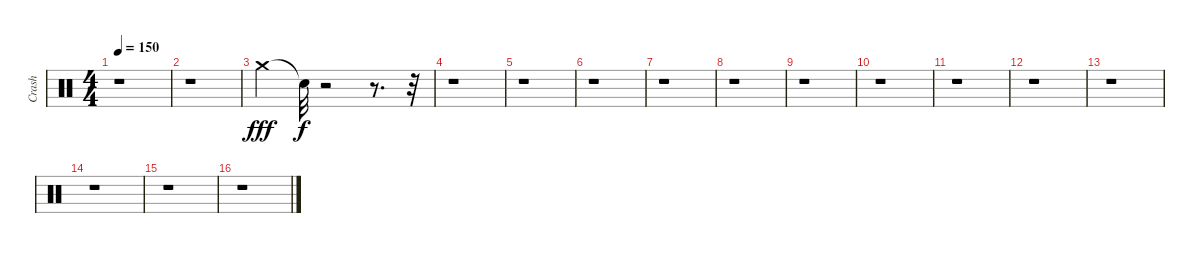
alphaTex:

\track ("Crash" "Crash") {instrument percussion}
\staff {score}
\articulation defaults
\ts (4 4)
\tempo 150
\clef neutral
\ks c
r.1{dy fff} |
r.1 |
"Crash medium (hit)".4 "Snare (hit)"{t}.32{dy f} r.2 r.8{d} r.32 |
r.1 |
r.1 |
r.1 |
r.1 |
r.1 |
r.1 |
r.1 |
r.1 |
r.1 |
r.1 |
r.1 |
r.1 |
r.1
